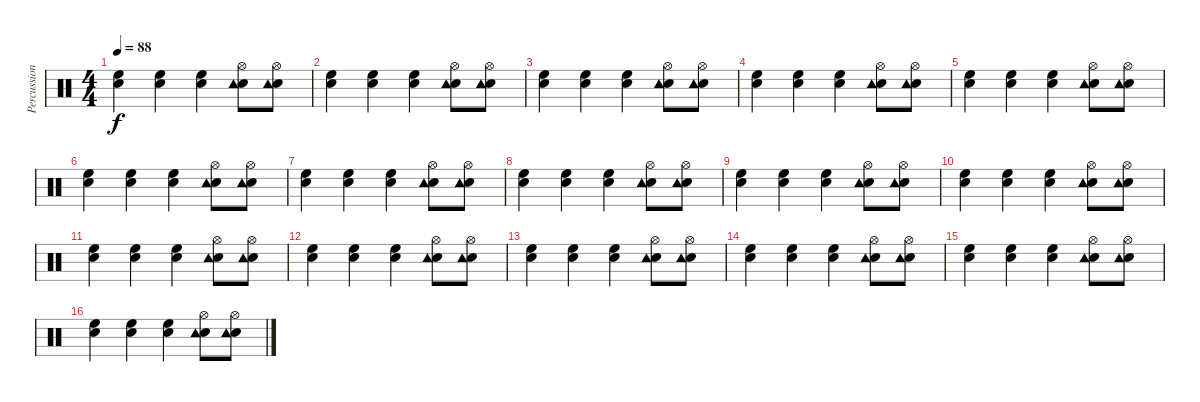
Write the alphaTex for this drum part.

\track ("Percussion" "Percussion") {instrument percussion}
\staff {score}
\articulation defaults
\ts (4 4)
\tempo 88
\clef neutral
\ks c
("Electric Snare (hit)" "High Floor Tom (hit)").4{dy f} ("Electric Snare (hit)" "High Floor Tom (hit)").4 ("Electric Snare (hit)" "High Floor Tom (hit)").4 ("Electric Snare (hit)" "Tambourine (hit)" "Hi-Hat (open)").8 ("Electric Snare (hit)" "Tambourine (hit)" "Hi-Hat (open)").8 |
("Electric Snare (hit)" "High Floor Tom (hit)").4 ("Electric Snare (hit)" "High Floor Tom (hit)").4 ("Electric Snare (hit)" "High Floor Tom (hit)").4 ("Electric Snare (hit)" "Tambourine (hit)" "Hi-Hat (open)").8 ("Electric Snare (hit)" "Tambourine (hit)" "Hi-Hat (open)").8 |
("Electric Snare (hit)" "High Floor Tom (hit)").4 ("Electric Snare (hit)" "High Floor Tom (hit)").4 ("Electric Snare (hit)" "High Floor Tom (hit)").4 ("Electric Snare (hit)" "Tambourine (hit)" "Hi-Hat (open)").8 ("Electric Snare (hit)" "Tambourine (hit)" "Hi-Hat (open)").8 |
("Electric Snare (hit)" "High Floor Tom (hit)").4 ("Electric Snare (hit)" "High Floor Tom (hit)").4 ("Electric Snare (hit)" "High Floor Tom (hit)").4 ("Electric Snare (hit)" "Tambourine (hit)" "Hi-Hat (open)").8 ("Electric Snare (hit)" "Tambourine (hit)" "Hi-Hat (open)").8 |
("Electric Snare (hit)" "High Floor Tom (hit)").4 ("Electric Snare (hit)" "High Floor Tom (hit)").4 ("Electric Snare (hit)" "High Floor Tom (hit)").4 ("Electric Snare (hit)" "Tambourine (hit)" "Hi-Hat (open)").8 ("Electric Snare (hit)" "Tambourine (hit)" "Hi-Hat (open)").8 |
("Electric Snare (hit)" "High Floor Tom (hit)").4 ("Electric Snare (hit)" "High Floor Tom (hit)").4 ("Electric Snare (hit)" "High Floor Tom (hit)").4 ("Electric Snare (hit)" "Tambourine (hit)" "Hi-Hat (open)").8 ("Electric Snare (hit)" "Tambourine (hit)" "Hi-Hat (open)").8 |
("Electric Snare (hit)" "High Floor Tom (hit)").4 ("Electric Snare (hit)" "High Floor Tom (hit)").4 ("Electric Snare (hit)" "High Floor Tom (hit)").4 ("Electric Snare (hit)" "Tambourine (hit)" "Hi-Hat (open)").8 ("Electric Snare (hit)" "Tambourine (hit)" "Hi-Hat (open)").8 |
("Electric Snare (hit)" "High Floor Tom (hit)").4 ("Electric Snare (hit)" "High Floor Tom (hit)").4 ("Electric Snare (hit)" "High Floor Tom (hit)").4 ("Electric Snare (hit)" "Tambourine (hit)" "Hi-Hat (open)").8 ("Electric Snare (hit)" "Tambourine (hit)" "Hi-Hat (open)").8 |
("Electric Snare (hit)" "High Floor Tom (hit)").4 ("Electric Snare (hit)" "High Floor Tom (hit)").4 ("Electric Snare (hit)" "High Floor Tom (hit)").4 ("Electric Snare (hit)" "Tambourine (hit)" "Hi-Hat (open)").8 ("Electric Snare (hit)" "Tambourine (hit)" "Hi-Hat (open)").8 |
("Electric Snare (hit)" "High Floor Tom (hit)").4 ("Electric Snare (hit)" "High Floor Tom (hit)").4 ("Electric Snare (hit)" "High Floor Tom (hit)").4 ("Electric Snare (hit)" "Tambourine (hit)" "Hi-Hat (open)").8 ("Electric Snare (hit)" "Tambourine (hit)" "Hi-Hat (open)").8 |
("Electric Snare (hit)" "High Floor Tom (hit)").4 ("Electric Snare (hit)" "High Floor Tom (hit)").4 ("Electric Snare (hit)" "High Floor Tom (hit)").4 ("Electric Snare (hit)" "Tambourine (hit)" "Hi-Hat (open)").8 ("Electric Snare (hit)" "Tambourine (hit)" "Hi-Hat (open)").8 |
("Electric Snare (hit)" "High Floor Tom (hit)").4 ("Electric Snare (hit)" "High Floor Tom (hit)").4 ("Electric Snare (hit)" "High Floor Tom (hit)").4 ("Electric Snare (hit)" "Tambourine (hit)" "Hi-Hat (open)").8 ("Electric Snare (hit)" "Tambourine (hit)" "Hi-Hat (open)").8 |
("Electric Snare (hit)" "High Floor Tom (hit)").4 ("Electric Snare (hit)" "High Floor Tom (hit)").4 ("Electric Snare (hit)" "High Floor Tom (hit)").4 ("Electric Snare (hit)" "Tambourine (hit)" "Hi-Hat (open)").8 ("Electric Snare (hit)" "Tambourine (hit)" "Hi-Hat (open)").8 |
("Electric Snare (hit)" "High Floor Tom (hit)").4 ("Electric Snare (hit)" "High Floor Tom (hit)").4 ("Electric Snare (hit)" "High Floor Tom (hit)").4 ("Electric Snare (hit)" "Tambourine (hit)" "Hi-Hat (open)").8 ("Electric Snare (hit)" "Tambourine (hit)" "Hi-Hat (open)").8 |
("Electric Snare (hit)" "High Floor Tom (hit)").4 ("Electric Snare (hit)" "High Floor Tom (hit)").4 ("Electric Snare (hit)" "High Floor Tom (hit)").4 ("Electric Snare (hit)" "Tambourine (hit)" "Hi-Hat (open)").8 ("Electric Snare (hit)" "Tambourine (hit)" "Hi-Hat (open)").8 |
("Electric Snare (hit)" "High Floor Tom (hit)").4 ("Electric Snare (hit)" "High Floor Tom (hit)").4 ("Electric Snare (hit)" "High Floor Tom (hit)").4 ("Electric Snare (hit)" "Tambourine (hit)" "Hi-Hat (open)").8 ("Electric Snare (hit)" "Tambourine (hit)" "Hi-Hat (open)").8
